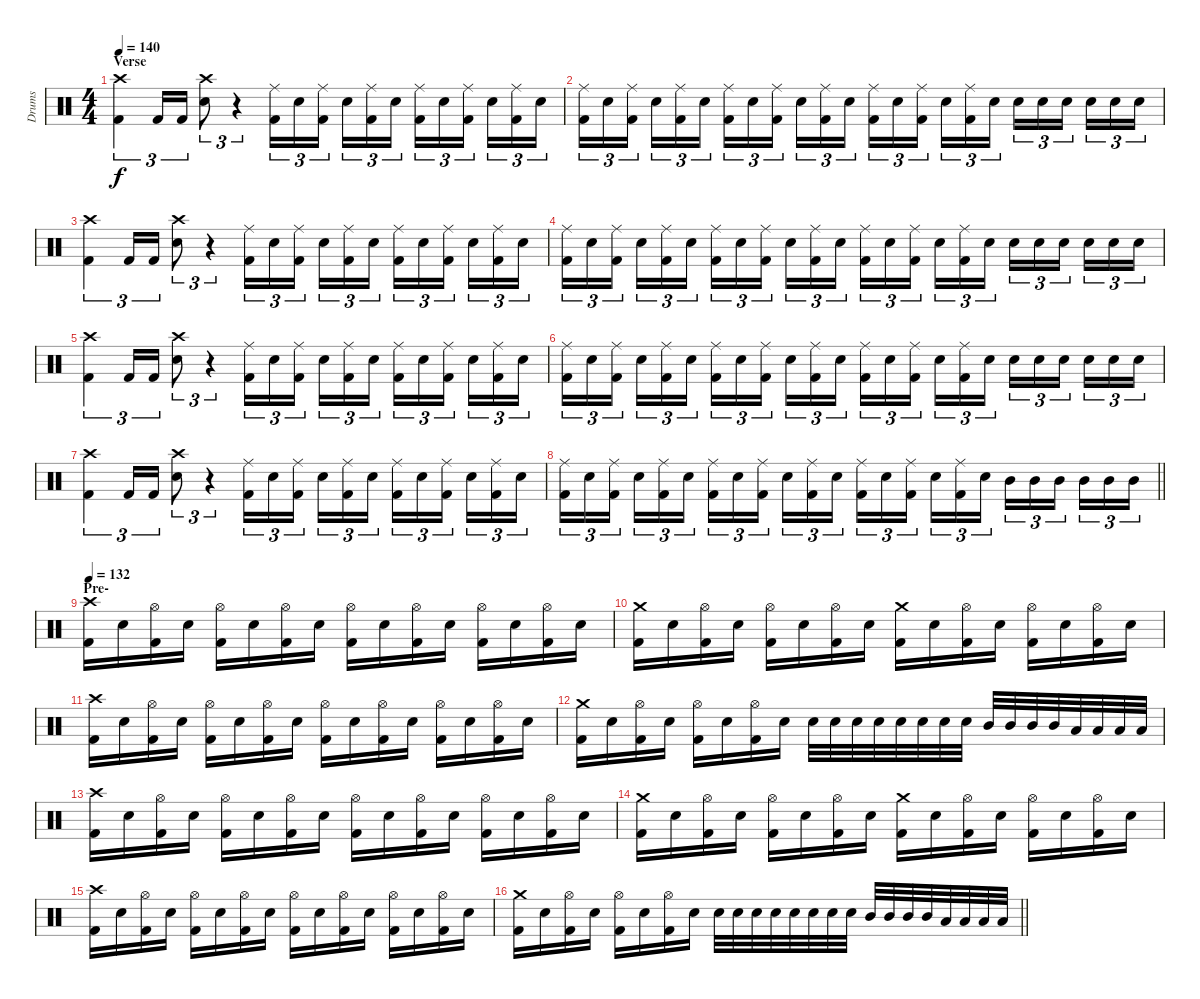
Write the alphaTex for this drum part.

\track ("Drums" "Drums") {instrument percussion}
\staff {score}
\articulation defaults
\ts (4 4)
\section ("" "Verse")
\tempo 140
\clef neutral
\ks c
("Crash high (hit)" "Kick (hit) 2").4{tu (3 2) dy f} "Kick (hit) 2".16{tu (3 2)} "Kick (hit) 2".16{tu (3 2)} ("Crash high (hit)" "Electric Snare (hit)").8{tu (3 2)} r.4{tu (3 2)} ("Ride (middle)" "Kick (hit) 2").16{tu (3 2)} "Electric Snare (hit)".16{tu (3 2)} ("Ride (middle)" "Kick (hit) 2").16{tu (3 2)} "Electric Snare (hit)".16{tu (3 2)} ("Ride (middle)" "Kick (hit) 2").16{tu (3 2)} "Electric Snare (hit)".16{tu (3 2)} ("Ride (middle)" "Kick (hit) 2").16{tu (3 2)} "Electric Snare (hit)".16{tu (3 2)} ("Ride (middle)" "Kick (hit) 2").16{tu (3 2)} "Electric Snare (hit)".16{tu (3 2)} ("Ride (middle)" "Kick (hit) 2").16{tu (3 2)} "Electric Snare (hit)".16{tu (3 2)} |
("Ride (middle)" "Kick (hit) 2").16{tu (3 2)} "Electric Snare (hit)".16{tu (3 2)} ("Ride (middle)" "Kick (hit) 2").16{tu (3 2)} "Electric Snare (hit)".16{tu (3 2)} ("Ride (middle)" "Kick (hit) 2").16{tu (3 2)} "Electric Snare (hit)".16{tu (3 2)} ("Ride (middle)" "Kick (hit) 2").16{tu (3 2)} "Electric Snare (hit)".16{tu (3 2)} ("Ride (middle)" "Kick (hit) 2").16{tu (3 2)} "Electric Snare (hit)".16{tu (3 2)} ("Ride (middle)" "Kick (hit) 2").16{tu (3 2)} "Electric Snare (hit)".16{tu (3 2)} ("Ride (middle)" "Kick (hit) 2").16{tu (3 2)} "Electric Snare (hit)".16{tu (3 2)} ("Ride (middle)" "Kick (hit) 2").16{tu (3 2)} "Electric Snare (hit)".16{tu (3 2)} ("Ride (middle)" "Kick (hit) 2").16{tu (3 2)} "Electric Snare (hit)".16{tu (3 2)} "Electric Snare (hit)".16{tu (3 2)} "Electric Snare (hit)".16{tu (3 2)} "Electric Snare (hit)".16{tu (3 2)} "Electric Snare (hit)".16{tu (3 2)} "Electric Snare (hit)".16{tu (3 2)} "Electric Snare (hit)".16{tu (3 2)} |
("Crash high (hit)" "Kick (hit) 2").4{tu (3 2)} "Kick (hit) 2".16{tu (3 2)} "Kick (hit) 2".16{tu (3 2)} ("Crash high (hit)" "Electric Snare (hit)").8{tu (3 2)} r.4{tu (3 2)} ("Ride (middle)" "Kick (hit) 2").16{tu (3 2)} "Electric Snare (hit)".16{tu (3 2)} ("Ride (middle)" "Kick (hit) 2").16{tu (3 2)} "Electric Snare (hit)".16{tu (3 2)} ("Ride (middle)" "Kick (hit) 2").16{tu (3 2)} "Electric Snare (hit)".16{tu (3 2)} ("Ride (middle)" "Kick (hit) 2").16{tu (3 2)} "Electric Snare (hit)".16{tu (3 2)} ("Ride (middle)" "Kick (hit) 2").16{tu (3 2)} "Electric Snare (hit)".16{tu (3 2)} ("Ride (middle)" "Kick (hit) 2").16{tu (3 2)} "Electric Snare (hit)".16{tu (3 2)} |
("Ride (middle)" "Kick (hit) 2").16{tu (3 2)} "Electric Snare (hit)".16{tu (3 2)} ("Ride (middle)" "Kick (hit) 2").16{tu (3 2)} "Electric Snare (hit)".16{tu (3 2)} ("Ride (middle)" "Kick (hit) 2").16{tu (3 2)} "Electric Snare (hit)".16{tu (3 2)} ("Ride (middle)" "Kick (hit) 2").16{tu (3 2)} "Electric Snare (hit)".16{tu (3 2)} ("Ride (middle)" "Kick (hit) 2").16{tu (3 2)} "Electric Snare (hit)".16{tu (3 2)} ("Ride (middle)" "Kick (hit) 2").16{tu (3 2)} "Electric Snare (hit)".16{tu (3 2)} ("Ride (middle)" "Kick (hit) 2").16{tu (3 2)} "Electric Snare (hit)".16{tu (3 2)} ("Ride (middle)" "Kick (hit) 2").16{tu (3 2)} "Electric Snare (hit)".16{tu (3 2)} ("Ride (middle)" "Kick (hit) 2").16{tu (3 2)} "Electric Snare (hit)".16{tu (3 2)} "Electric Snare (hit)".16{tu (3 2)} "Electric Snare (hit)".16{tu (3 2)} "Electric Snare (hit)".16{tu (3 2)} "Electric Snare (hit)".16{tu (3 2)} "Electric Snare (hit)".16{tu (3 2)} "Electric Snare (hit)".16{tu (3 2)} |
("Crash high (hit)" "Kick (hit) 2").4{tu (3 2)} "Kick (hit) 2".16{tu (3 2)} "Kick (hit) 2".16{tu (3 2)} ("Crash high (hit)" "Electric Snare (hit)").8{tu (3 2)} r.4{tu (3 2)} ("Ride (middle)" "Kick (hit) 2").16{tu (3 2)} "Electric Snare (hit)".16{tu (3 2)} ("Ride (middle)" "Kick (hit) 2").16{tu (3 2)} "Electric Snare (hit)".16{tu (3 2)} ("Ride (middle)" "Kick (hit) 2").16{tu (3 2)} "Electric Snare (hit)".16{tu (3 2)} ("Ride (middle)" "Kick (hit) 2").16{tu (3 2)} "Electric Snare (hit)".16{tu (3 2)} ("Ride (middle)" "Kick (hit) 2").16{tu (3 2)} "Electric Snare (hit)".16{tu (3 2)} ("Ride (middle)" "Kick (hit) 2").16{tu (3 2)} "Electric Snare (hit)".16{tu (3 2)} |
("Ride (middle)" "Kick (hit) 2").16{tu (3 2)} "Electric Snare (hit)".16{tu (3 2)} ("Ride (middle)" "Kick (hit) 2").16{tu (3 2)} "Electric Snare (hit)".16{tu (3 2)} ("Ride (middle)" "Kick (hit) 2").16{tu (3 2)} "Electric Snare (hit)".16{tu (3 2)} ("Ride (middle)" "Kick (hit) 2").16{tu (3 2)} "Electric Snare (hit)".16{tu (3 2)} ("Ride (middle)" "Kick (hit) 2").16{tu (3 2)} "Electric Snare (hit)".16{tu (3 2)} ("Ride (middle)" "Kick (hit) 2").16{tu (3 2)} "Electric Snare (hit)".16{tu (3 2)} ("Ride (middle)" "Kick (hit) 2").16{tu (3 2)} "Electric Snare (hit)".16{tu (3 2)} ("Ride (middle)" "Kick (hit) 2").16{tu (3 2)} "Electric Snare (hit)".16{tu (3 2)} ("Ride (middle)" "Kick (hit) 2").16{tu (3 2)} "Electric Snare (hit)".16{tu (3 2)} "Electric Snare (hit)".16{tu (3 2)} "Electric Snare (hit)".16{tu (3 2)} "Electric Snare (hit)".16{tu (3 2)} "Electric Snare (hit)".16{tu (3 2)} "Electric Snare (hit)".16{tu (3 2)} "Electric Snare (hit)".16{tu (3 2)} |
("Crash high (hit)" "Kick (hit) 2").4{tu (3 2)} "Kick (hit) 2".16{tu (3 2)} "Kick (hit) 2".16{tu (3 2)} ("Crash high (hit)" "Electric Snare (hit)").8{tu (3 2)} r.4{tu (3 2)} ("Ride (middle)" "Kick (hit) 2").16{tu (3 2)} "Electric Snare (hit)".16{tu (3 2)} ("Ride (middle)" "Kick (hit) 2").16{tu (3 2)} "Electric Snare (hit)".16{tu (3 2)} ("Ride (middle)" "Kick (hit) 2").16{tu (3 2)} "Electric Snare (hit)".16{tu (3 2)} ("Ride (middle)" "Kick (hit) 2").16{tu (3 2)} "Electric Snare (hit)".16{tu (3 2)} ("Ride (middle)" "Kick (hit) 2").16{tu (3 2)} "Electric Snare (hit)".16{tu (3 2)} ("Ride (middle)" "Kick (hit) 2").16{tu (3 2)} "Electric Snare (hit)".16{tu (3 2)} |
\barLineRight lightlight
("Ride (middle)" "Kick (hit) 2").16{tu (3 2)} "Electric Snare (hit)".16{tu (3 2)} ("Ride (middle)" "Kick (hit) 2").16{tu (3 2)} "Electric Snare (hit)".16{tu (3 2)} ("Ride (middle)" "Kick (hit) 2").16{tu (3 2)} "Electric Snare (hit)".16{tu (3 2)} ("Ride (middle)" "Kick (hit) 2").16{tu (3 2)} "Electric Snare (hit)".16{tu (3 2)} ("Ride (middle)" "Kick (hit) 2").16{tu (3 2)} "Electric Snare (hit)".16{tu (3 2)} ("Ride (middle)" "Kick (hit) 2").16{tu (3 2)} "Electric Snare (hit)".16{tu (3 2)} ("Ride (middle)" "Kick (hit) 2").16{tu (3 2)} "Electric Snare (hit)".16{tu (3 2)} ("Ride (middle)" "Kick (hit) 2").16{tu (3 2)} "Electric Snare (hit)".16{tu (3 2)} ("Ride (middle)" "Kick (hit) 2").16{tu (3 2)} "Electric Snare (hit)".16{tu (3 2)} "Mid Tom (hit)".16{tu (3 2)} "Mid Tom (hit)".16{tu (3 2)} "Mid Tom (hit)".16{tu (3 2)} "Mid Tom (hit)".16{tu (3 2)} "Mid Tom (hit)".16{tu (3 2)} "Mid Tom (hit)".16{tu (3 2)} |
\section ("" "Pre-")
\tempo 132
("Crash high (hit)" "Kick (hit) 2").16 "Electric Snare (hit)".16 ("Hi-Hat (open)" "Kick (hit) 2").16 "Electric Snare (hit)".16 ("Hi-Hat (open)" "Kick (hit) 2").16 "Electric Snare (hit)".16 ("Hi-Hat (open)" "Kick (hit) 2").16 "Electric Snare (hit)".16 ("Hi-Hat (open)" "Kick (hit) 2").16 "Electric Snare (hit)".16 ("Hi-Hat (open)" "Kick (hit) 2").16 "Electric Snare (hit)".16 ("Hi-Hat (open)" "Kick (hit) 2").16 "Electric Snare (hit)".16 ("Hi-Hat (open)" "Kick (hit) 2").16 "Electric Snare (hit)".16 |
("Crash medium (hit)" "Kick (hit) 2").16 "Electric Snare (hit)".16 ("Hi-Hat (open)" "Kick (hit) 2").16 "Electric Snare (hit)".16 ("Hi-Hat (open)" "Kick (hit) 2").16 "Electric Snare (hit)".16 ("Hi-Hat (open)" "Kick (hit) 2").16 "Electric Snare (hit)".16 ("Crash medium (hit)" "Kick (hit) 2").16 "Electric Snare (hit)".16 ("Hi-Hat (open)" "Kick (hit) 2").16 "Electric Snare (hit)".16 ("Hi-Hat (open)" "Kick (hit) 2").16 "Electric Snare (hit)".16 ("Hi-Hat (open)" "Kick (hit) 2").16 "Electric Snare (hit)".16 |
("Crash high (hit)" "Kick (hit) 2").16 "Electric Snare (hit)".16 ("Hi-Hat (open)" "Kick (hit) 2").16 "Electric Snare (hit)".16 ("Hi-Hat (open)" "Kick (hit) 2").16 "Electric Snare (hit)".16 ("Hi-Hat (open)" "Kick (hit) 2").16 "Electric Snare (hit)".16 ("Hi-Hat (open)" "Kick (hit) 2").16 "Electric Snare (hit)".16 ("Hi-Hat (open)" "Kick (hit) 2").16 "Electric Snare (hit)".16 ("Hi-Hat (open)" "Kick (hit) 2").16 "Electric Snare (hit)".16 ("Hi-Hat (open)" "Kick (hit) 2").16 "Electric Snare (hit)".16 |
("Crash medium (hit)" "Kick (hit) 2").16 "Electric Snare (hit)".16 ("Hi-Hat (open)" "Kick (hit) 2").16 "Electric Snare (hit)".16 ("Hi-Hat (open)" "Kick (hit) 2").16 "Electric Snare (hit)".16 ("Hi-Hat (open)" "Kick (hit) 2").16 "Electric Snare (hit)".16 "Electric Snare (hit)".32 "Electric Snare (hit)".32 "Electric Snare (hit)".32 "Electric Snare (hit)".32 "Electric Snare (hit)".32 "Electric Snare (hit)".32 "Electric Snare (hit)".32 "Electric Snare (hit)".32 "Mid Tom (hit)".32 "Mid Tom (hit)".32 "Mid Tom (hit)".32 "Mid Tom (hit)".32 "Low Tom (hit)".32 "Low Tom (hit)".32 "Low Tom (hit)".32 "Low Tom (hit)".32 |
("Crash high (hit)" "Kick (hit) 2").16 "Electric Snare (hit)".16 ("Hi-Hat (open)" "Kick (hit) 2").16 "Electric Snare (hit)".16 ("Hi-Hat (open)" "Kick (hit) 2").16 "Electric Snare (hit)".16 ("Hi-Hat (open)" "Kick (hit) 2").16 "Electric Snare (hit)".16 ("Hi-Hat (open)" "Kick (hit) 2").16 "Electric Snare (hit)".16 ("Hi-Hat (open)" "Kick (hit) 2").16 "Electric Snare (hit)".16 ("Hi-Hat (open)" "Kick (hit) 2").16 "Electric Snare (hit)".16 ("Hi-Hat (open)" "Kick (hit) 2").16 "Electric Snare (hit)".16 |
("Crash medium (hit)" "Kick (hit) 2").16 "Electric Snare (hit)".16 ("Hi-Hat (open)" "Kick (hit) 2").16 "Electric Snare (hit)".16 ("Hi-Hat (open)" "Kick (hit) 2").16 "Electric Snare (hit)".16 ("Hi-Hat (open)" "Kick (hit) 2").16 "Electric Snare (hit)".16 ("Crash medium (hit)" "Kick (hit) 2").16 "Electric Snare (hit)".16 ("Hi-Hat (open)" "Kick (hit) 2").16 "Electric Snare (hit)".16 ("Hi-Hat (open)" "Kick (hit) 2").16 "Electric Snare (hit)".16 ("Hi-Hat (open)" "Kick (hit) 2").16 "Electric Snare (hit)".16 |
("Crash high (hit)" "Kick (hit) 2").16 "Electric Snare (hit)".16 ("Hi-Hat (open)" "Kick (hit) 2").16 "Electric Snare (hit)".16 ("Hi-Hat (open)" "Kick (hit) 2").16 "Electric Snare (hit)".16 ("Hi-Hat (open)" "Kick (hit) 2").16 "Electric Snare (hit)".16 ("Hi-Hat (open)" "Kick (hit) 2").16 "Electric Snare (hit)".16 ("Hi-Hat (open)" "Kick (hit) 2").16 "Electric Snare (hit)".16 ("Hi-Hat (open)" "Kick (hit) 2").16 "Electric Snare (hit)".16 ("Hi-Hat (open)" "Kick (hit) 2").16 "Electric Snare (hit)".16 |
\barLineRight lightlight
("Crash medium (hit)" "Kick (hit) 2").16 "Electric Snare (hit)".16 ("Hi-Hat (open)" "Kick (hit) 2").16 "Electric Snare (hit)".16 ("Hi-Hat (open)" "Kick (hit) 2").16 "Electric Snare (hit)".16 ("Hi-Hat (open)" "Kick (hit) 2").16 "Electric Snare (hit)".16 "Electric Snare (hit)".32 "Electric Snare (hit)".32 "Electric Snare (hit)".32 "Electric Snare (hit)".32 "Electric Snare (hit)".32 "Electric Snare (hit)".32 "Electric Snare (hit)".32 "Electric Snare (hit)".32 "Mid Tom (hit)".32 "Mid Tom (hit)".32 "Mid Tom (hit)".32 "Mid Tom (hit)".32 "Low Tom (hit)".32 "Low Tom (hit)".32 "Low Tom (hit)".32 "Low Tom (hit)".32
